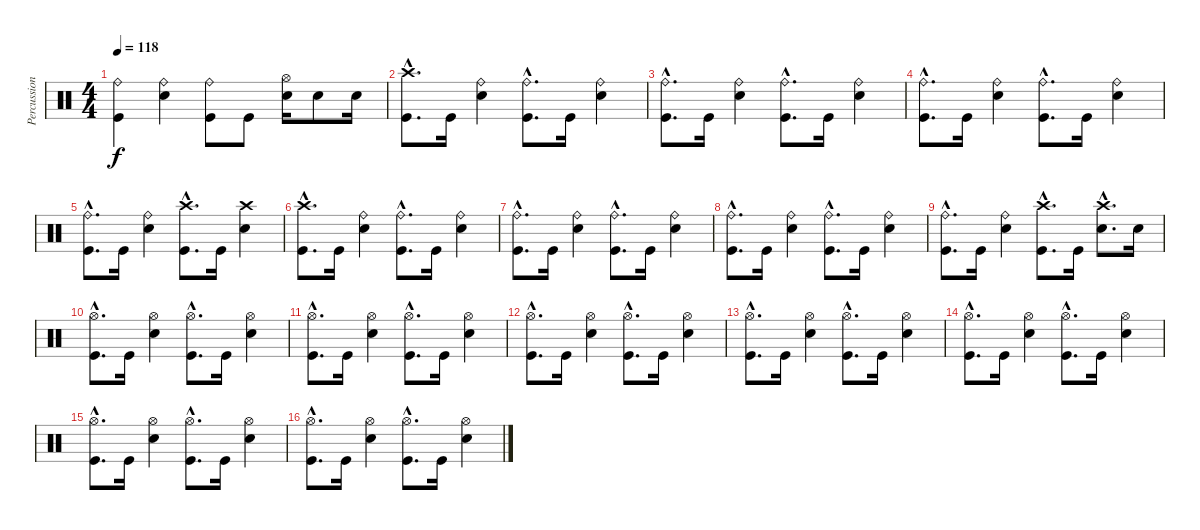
\track ("Percussion" "Percussion") {instrument percussion}
\staff {score}
\articulation defaults
\ts (4 4)
\tempo 118
\clef neutral
\ks c
("Ride (bell)" "Kick (hit)").4{dy f} ("Ride (bell)" "Electric Snare (hit)").4 ("Ride (bell)" "Kick (hit)").8 "Kick (hit)".8 ("Hi-Hat (open)" "Electric Snare (hit)").16 "Electric Snare (hit)".8 "Electric Snare (hit)".16 |
("Crash high (hit)"{hac} "Kick (hit)"{hac}).8{d} "Kick (hit)".16 ("Ride (bell)" "Snare (hit) 2").4 ("Ride (bell)"{hac} "Kick (hit)"{hac}).8{d} "Kick (hit)".16 ("Ride (bell)" "Snare (hit) 2").4 |
("Ride (bell)"{hac} "Kick (hit)"{hac}).8{d} "Kick (hit)".16 ("Ride (bell)" "Snare (hit) 2").4 ("Ride (bell)"{hac} "Kick (hit)"{hac}).8{d} "Kick (hit)".16 ("Ride (bell)" "Snare (hit) 2").4 |
("Ride (bell)"{hac} "Kick (hit)"{hac}).8{d} "Kick (hit)".16 ("Ride (bell)" "Snare (hit) 2").4 ("Ride (bell)"{hac} "Kick (hit)"{hac}).8{d} "Kick (hit)".16 ("Ride (bell)" "Snare (hit) 2").4 |
("Ride (bell)"{hac} "Kick (hit)"{hac}).8{d} "Kick (hit)".16 ("Ride (bell)" "Snare (hit) 2").4 ("Crash high (hit)"{hac} "Kick (hit)"{hac}).8{d} "Kick (hit)".16 ("Crash high (hit)" "Snare (hit) 2").4 |
("Crash high (hit)"{hac} "Kick (hit)"{hac}).8{d} "Kick (hit)".16 ("Ride (bell)" "Snare (hit) 2").4 ("Ride (bell)"{hac} "Kick (hit)"{hac}).8{d} "Kick (hit)".16 ("Ride (bell)" "Snare (hit) 2").4 |
("Ride (bell)"{hac} "Kick (hit)"{hac}).8{d} "Kick (hit)".16 ("Ride (bell)" "Snare (hit) 2").4 ("Ride (bell)"{hac} "Kick (hit)"{hac}).8{d} "Kick (hit)".16 ("Ride (bell)" "Snare (hit) 2").4 |
("Ride (bell)"{hac} "Kick (hit)"{hac}).8{d} "Kick (hit)".16 ("Ride (bell)" "Snare (hit) 2").4 ("Ride (bell)"{hac} "Kick (hit)"{hac}).8{d} "Kick (hit)".16 ("Ride (bell)" "Snare (hit) 2").4 |
("Ride (bell)"{hac} "Kick (hit)"{hac}).8{d} "Kick (hit)".16 ("Ride (bell)" "Snare (hit) 2").4 ("Crash high (hit)"{hac} "Kick (hit)"{hac}).8{d} "Kick (hit)".16 ("Crash high (hit)"{hac} "Snare (hit) 2"{hac}).8{d} "Snare (hit) 2".16 |
("Hi-Hat (open)"{hac} "Kick (hit)"{hac}).8{d} "Kick (hit)".16 ("Hi-Hat (open)" "Snare (hit) 2").4 ("Hi-Hat (open)"{hac} "Kick (hit)"{hac}).8{d} "Kick (hit)".16 ("Hi-Hat (open)" "Snare (hit) 2").4 |
("Hi-Hat (open)"{hac} "Kick (hit)"{hac}).8{d} "Kick (hit)".16 ("Hi-Hat (open)" "Snare (hit) 2").4 ("Hi-Hat (open)"{hac} "Kick (hit)"{hac}).8{d} "Kick (hit)".16 ("Hi-Hat (open)" "Snare (hit) 2").4 |
("Hi-Hat (open)"{hac} "Kick (hit)"{hac}).8{d} "Kick (hit)".16 ("Hi-Hat (open)" "Snare (hit) 2").4 ("Hi-Hat (open)"{hac} "Kick (hit)"{hac}).8{d} "Kick (hit)".16 ("Hi-Hat (open)" "Snare (hit) 2").4 |
("Hi-Hat (open)"{hac} "Kick (hit)"{hac}).8{d} "Kick (hit)".16 ("Hi-Hat (open)" "Snare (hit) 2").4 ("Hi-Hat (open)"{hac} "Kick (hit)"{hac}).8{d} "Kick (hit)".16 ("Hi-Hat (open)" "Snare (hit) 2").4 |
("Hi-Hat (open)"{hac} "Kick (hit)"{hac}).8{d} "Kick (hit)".16 ("Hi-Hat (open)" "Snare (hit) 2").4 ("Hi-Hat (open)"{hac} "Kick (hit)"{hac}).8{d} "Kick (hit)".16 ("Hi-Hat (open)" "Snare (hit) 2").4 |
("Hi-Hat (open)"{hac} "Kick (hit)"{hac}).8{d} "Kick (hit)".16 ("Hi-Hat (open)" "Snare (hit) 2").4 ("Hi-Hat (open)"{hac} "Kick (hit)"{hac}).8{d} "Kick (hit)".16 ("Hi-Hat (open)" "Snare (hit) 2").4 |
("Hi-Hat (open)"{hac} "Kick (hit)"{hac}).8{d} "Kick (hit)".16 ("Hi-Hat (open)" "Snare (hit) 2").4 ("Hi-Hat (open)"{hac} "Kick (hit)"{hac}).8{d} "Kick (hit)".16 ("Hi-Hat (open)" "Snare (hit) 2").4
